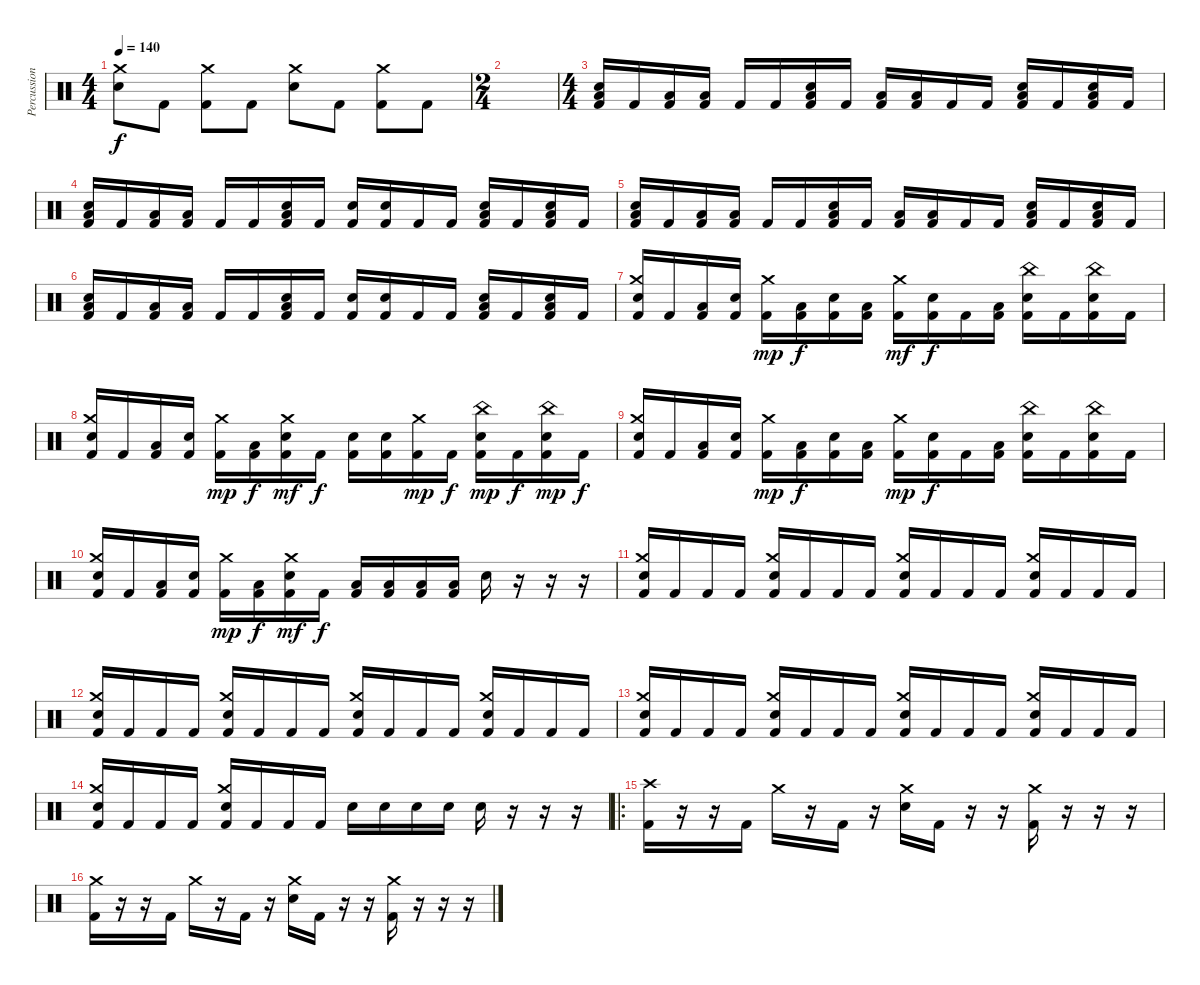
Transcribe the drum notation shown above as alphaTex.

\track ("Percussions" "Percussion") {instrument percussion}
\staff {score}
\articulation defaults
\ts (4 4)
\tempo 140
\clef neutral
\ks c
("Electric Snare (hit)" "Crash medium (hit)").8{dy f} "Kick (hit) 2".8 ("Kick (hit) 2" "Crash medium (hit)").8 "Kick (hit) 2".8 ("Electric Snare (hit)" "Crash medium (hit)").8 "Kick (hit) 2".8 ("Kick (hit) 2" "Crash medium (hit)").8 "Kick (hit) 2".8 |
\ts (2 4)
|
\ts (4 4)
("Kick (hit) 2" "Electric Snare (hit)" "Low Tom (hit)").16 "Kick (hit) 2".16 ("Kick (hit) 2" "Low Floor Tom (hit)").16 ("Kick (hit) 2" "Low Tom (hit)").16 "Kick (hit) 2".16 "Kick (hit) 2".16 ("Kick (hit) 2" "Electric Snare (hit)" "Low Tom (hit)").16 "Kick (hit) 2".16 ("Kick (hit) 2" "Low Floor Tom (hit)").16 ("Kick (hit) 2" "Low Tom (hit)").16 "Kick (hit) 2".16 "Kick (hit) 2".16 ("Kick (hit) 2" "Electric Snare (hit)" "Low Tom (hit)").16 "Kick (hit) 2".16 ("Kick (hit) 2" "Electric Snare (hit)" "Low Tom (hit)").16 "Kick (hit) 2".16 |
("Kick (hit) 2" "Electric Snare (hit)" "Low Tom (hit)").16 "Kick (hit) 2".16 ("Kick (hit) 2" "Low Floor Tom (hit)").16 ("Kick (hit) 2" "Low Tom (hit)").16 "Kick (hit) 2".16 "Kick (hit) 2".16 ("Kick (hit) 2" "Electric Snare (hit)" "Low Tom (hit)").16 "Kick (hit) 2".16 ("Kick (hit) 2" "Electric Snare (hit)").16 ("Kick (hit) 2" "Electric Snare (hit)").16 "Kick (hit) 2".16 "Kick (hit) 2".16 ("Kick (hit) 2" "Electric Snare (hit)" "Low Tom (hit)").16 "Kick (hit) 2".16 ("Kick (hit) 2" "Electric Snare (hit)" "Low Tom (hit)").16 "Kick (hit) 2".16 |
("Kick (hit) 2" "Electric Snare (hit)" "Low Tom (hit)").16 "Kick (hit) 2".16 ("Kick (hit) 2" "Low Floor Tom (hit)").16 ("Kick (hit) 2" "Low Tom (hit)").16 "Kick (hit) 2".16 "Kick (hit) 2".16 ("Kick (hit) 2" "Electric Snare (hit)" "Low Tom (hit)").16 "Kick (hit) 2".16 ("Kick (hit) 2" "Low Floor Tom (hit)").16 ("Kick (hit) 2" "Low Tom (hit)").16 "Kick (hit) 2".16 "Kick (hit) 2".16 ("Kick (hit) 2" "Electric Snare (hit)" "Low Tom (hit)").16 "Kick (hit) 2".16 ("Kick (hit) 2" "Electric Snare (hit)" "Low Tom (hit)").16 "Kick (hit) 2".16 |
("Kick (hit) 2" "Electric Snare (hit)" "Low Tom (hit)").16 "Kick (hit) 2".16 ("Kick (hit) 2" "Low Floor Tom (hit)").16 ("Kick (hit) 2" "Low Tom (hit)").16 "Kick (hit) 2".16 "Kick (hit) 2".16 ("Kick (hit) 2" "Electric Snare (hit)" "Low Tom (hit)").16 "Kick (hit) 2".16 ("Kick (hit) 2" "Electric Snare (hit)").16 ("Kick (hit) 2" "Electric Snare (hit)").16 "Kick (hit) 2".16 "Kick (hit) 2".16 ("Kick (hit) 2" "Electric Snare (hit)" "Low Tom (hit)").16 "Kick (hit) 2".16 ("Kick (hit) 2" "Electric Snare (hit)" "Low Tom (hit)").16 "Kick (hit) 2".16 |
("Kick (hit) 2" "Electric Snare (hit)" "Crash medium (hit)").16 "Kick (hit) 2".16 ("Kick (hit) 2" "Low Tom (hit)").16 ("Kick (hit) 2" "Electric Snare (hit)").16 ("Kick (hit) 2" "Crash medium (hit)").16{dy mp} ("Kick (hit) 2" "Low Tom (hit)").16{dy f} ("Kick (hit) 2" "Electric Snare (hit)").16 ("Kick (hit) 2" "Low Tom (hit)").16 ("Kick (hit) 2" "Crash medium (hit)").16{dy mf} ("Kick (hit) 2" "Electric Snare (hit)").16{dy f} "Kick (hit) 2".16 ("Kick (hit) 2" "Low Tom (hit)").16 ("Kick (hit) 2" "Electric Snare (hit)" "China (hit)").16 "Kick (hit) 2".16 ("Kick (hit) 2" "Electric Snare (hit)" "China (hit)").16 "Kick (hit) 2".16 |
("Kick (hit) 2" "Electric Snare (hit)" "Crash medium (hit)").16 "Kick (hit) 2".16 ("Kick (hit) 2" "Low Tom (hit)").16 ("Kick (hit) 2" "Electric Snare (hit)").16 ("Kick (hit) 2" "Crash medium (hit)").16{dy mp} ("Kick (hit) 2" "Low Tom (hit)").16{dy f} ("Kick (hit) 2" "Electric Snare (hit)" "Crash medium (hit)").16{dy mf} "Kick (hit) 2".16{dy f} ("Kick (hit) 2" "Electric Snare (hit)").16 ("Kick (hit) 2" "Electric Snare (hit)").16 ("Kick (hit) 2" "Crash medium (hit)").16{dy mp} "Kick (hit) 2".16{dy f} ("Kick (hit) 2" "Electric Snare (hit)" "China (hit)").16{dy mp} "Kick (hit) 2".16{dy f} ("Kick (hit) 2" "Electric Snare (hit)" "China (hit)").16{dy mp} "Kick (hit) 2".16{dy f} |
("Kick (hit) 2" "Electric Snare (hit)" "Crash medium (hit)").16 "Kick (hit) 2".16 ("Kick (hit) 2" "Low Tom (hit)").16 ("Kick (hit) 2" "Electric Snare (hit)").16 ("Kick (hit) 2" "Crash medium (hit)").16{dy mp} ("Kick (hit) 2" "Low Tom (hit)").16{dy f} ("Kick (hit) 2" "Electric Snare (hit)").16 ("Kick (hit) 2" "Low Tom (hit)").16 ("Kick (hit) 2" "Crash medium (hit)").16{dy mp} ("Kick (hit) 2" "Electric Snare (hit)").16{dy f} "Kick (hit) 2".16 ("Kick (hit) 2" "Low Tom (hit)").16 ("Kick (hit) 2" "Electric Snare (hit)" "China (hit)").16 "Kick (hit) 2".16 ("Kick (hit) 2" "Electric Snare (hit)" "China (hit)").16 "Kick (hit) 2".16 |
("Kick (hit) 2" "Electric Snare (hit)" "Crash medium (hit)").16 "Kick (hit) 2".16 ("Kick (hit) 2" "Low Tom (hit)").16 ("Kick (hit) 2" "Electric Snare (hit)").16 ("Kick (hit) 2" "Crash medium (hit)").16{dy mp} ("Kick (hit) 2" "Low Tom (hit)").16{dy f} ("Kick (hit) 2" "Electric Snare (hit)" "Crash medium (hit)").16{dy mf} "Kick (hit) 2".16{dy f} ("Kick (hit) 2" "Low Tom (hit)").16 ("Kick (hit) 2" "Low Tom (hit)").16 ("Kick (hit) 2" "Low Tom (hit)").16 ("Kick (hit) 2" "Low Tom (hit)").16 "Electric Snare (hit)".16 r.16 r.16 r.16 |
("Kick (hit) 2" "Electric Snare (hit)" "Crash medium (hit)").16 "Kick (hit) 2".16 "Kick (hit) 2".16 "Kick (hit) 2".16 ("Kick (hit) 2" "Electric Snare (hit)" "Crash medium (hit)").16 "Kick (hit) 2".16 "Kick (hit) 2".16 "Kick (hit) 2".16 ("Kick (hit) 2" "Electric Snare (hit)" "Crash medium (hit)").16 "Kick (hit) 2".16 "Kick (hit) 2".16 "Kick (hit) 2".16 ("Kick (hit) 2" "Electric Snare (hit)" "Crash medium (hit)").16 "Kick (hit) 2".16 "Kick (hit) 2".16 "Kick (hit) 2".16 |
("Kick (hit) 2" "Electric Snare (hit)" "Crash medium (hit)").16 "Kick (hit) 2".16 "Kick (hit) 2".16 "Kick (hit) 2".16 ("Kick (hit) 2" "Electric Snare (hit)" "Crash medium (hit)").16 "Kick (hit) 2".16 "Kick (hit) 2".16 "Kick (hit) 2".16 ("Kick (hit) 2" "Electric Snare (hit)" "Crash medium (hit)").16 "Kick (hit) 2".16 "Kick (hit) 2".16 "Kick (hit) 2".16 ("Kick (hit) 2" "Electric Snare (hit)" "Crash medium (hit)").16 "Kick (hit) 2".16 "Kick (hit) 2".16 "Kick (hit) 2".16 |
("Kick (hit) 2" "Electric Snare (hit)" "Crash medium (hit)").16 "Kick (hit) 2".16 "Kick (hit) 2".16 "Kick (hit) 2".16 ("Kick (hit) 2" "Electric Snare (hit)" "Crash medium (hit)").16 "Kick (hit) 2".16 "Kick (hit) 2".16 "Kick (hit) 2".16 ("Kick (hit) 2" "Electric Snare (hit)" "Crash medium (hit)").16 "Kick (hit) 2".16 "Kick (hit) 2".16 "Kick (hit) 2".16 ("Kick (hit) 2" "Electric Snare (hit)" "Crash medium (hit)").16 "Kick (hit) 2".16 "Kick (hit) 2".16 "Kick (hit) 2".16 |
("Kick (hit) 2" "Electric Snare (hit)" "Crash medium (hit)").16 "Kick (hit) 2".16 "Kick (hit) 2".16 "Kick (hit) 2".16 ("Kick (hit) 2" "Electric Snare (hit)" "Crash medium (hit)").16 "Kick (hit) 2".16 "Kick (hit) 2".16 "Kick (hit) 2".16 "Electric Snare (hit)".16 "Electric Snare (hit)".16 "Electric Snare (hit)".16 "Electric Snare (hit)".16 "Electric Snare (hit)".16 r.16 r.16 r.16 |
\ro
("Kick (hit) 2" "Crash high (hit)").16 r.16 r.16 "Kick (hit) 2".16 "Crash medium (hit)".16 r.16 "Kick (hit) 2".16 r.16 ("Electric Snare (hit)" "Crash medium (hit)").16 "Kick (hit) 2".16 r.16 r.16 ("Kick (hit) 2" "Crash medium (hit)").16 r.16 r.16 r.16 |
("Kick (hit) 2" "Crash medium (hit)").16 r.16 r.16 "Kick (hit) 2".16 "Crash medium (hit)".16 r.16 "Kick (hit) 2".16 r.16 ("Electric Snare (hit)" "Crash medium (hit)").16 "Kick (hit) 2".16 r.16 r.16 ("Kick (hit) 2" "Crash medium (hit)").16 r.16 r.16 r.16
